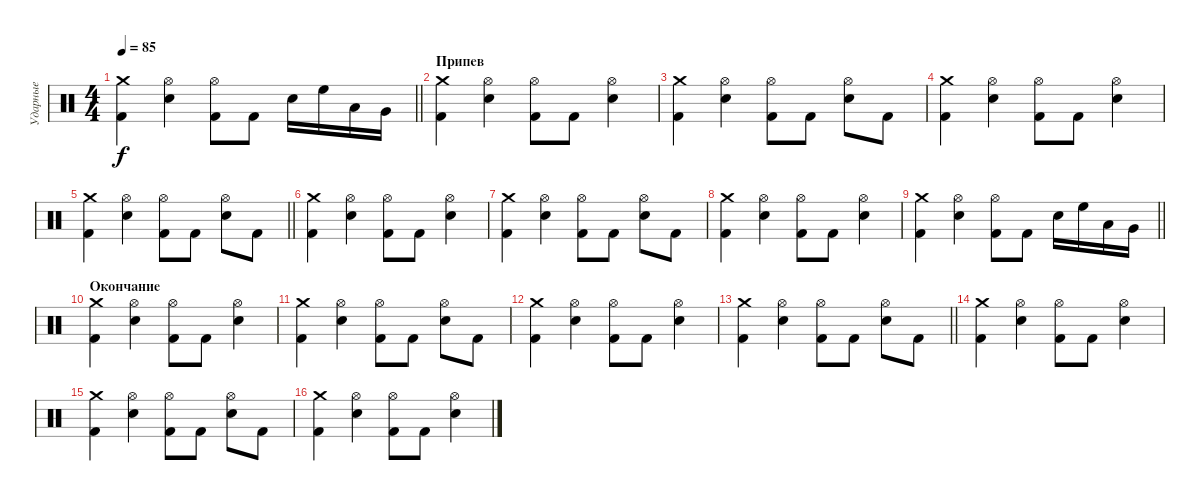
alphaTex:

\track ("Ударные" "Ударные") {instrument percussion}
\staff {score}
\articulation defaults
\ts (4 4)
\tempo 85
\clef neutral
\barLineRight lightlight
\ks c
("Crash medium (hit)" "Kick (hit) 2").4{dy f} ("Hi-Hat (open)" "Snare (hit) 2").4 ("Hi-Hat (open)" "Kick (hit) 2").8 "Kick (hit) 2".8 "Snare (hit) 2".16 "High Floor Tom (hit)".16 "Low Tom (hit)".16 "Very Low Tom (hit)".16 |
\section ("" "Припев")
("Crash medium (hit)" "Kick (hit) 2").4 ("Hi-Hat (open)" "Snare (hit) 2").4 ("Hi-Hat (open)" "Kick (hit) 2").8 "Kick (hit) 2".8 ("Hi-Hat (open)" "Snare (hit) 2").4 |
("Crash medium (hit)" "Kick (hit) 2").4 ("Hi-Hat (open)" "Snare (hit) 2").4 ("Hi-Hat (open)" "Kick (hit) 2").8 "Kick (hit) 2".8 ("Hi-Hat (open)" "Snare (hit) 2").8 "Kick (hit) 2".8 |
("Crash medium (hit)" "Kick (hit) 2").4 ("Hi-Hat (open)" "Snare (hit) 2").4 ("Hi-Hat (open)" "Kick (hit) 2").8 "Kick (hit) 2".8 ("Hi-Hat (open)" "Snare (hit) 2").4 |
\barLineRight lightlight
("Crash medium (hit)" "Kick (hit) 2").4 ("Hi-Hat (open)" "Snare (hit) 2").4 ("Hi-Hat (open)" "Kick (hit) 2").8 "Kick (hit) 2".8 ("Hi-Hat (open)" "Snare (hit) 2").8 "Kick (hit) 2".8 |
("Crash medium (hit)" "Kick (hit) 2").4 ("Hi-Hat (open)" "Snare (hit) 2").4 ("Hi-Hat (open)" "Kick (hit) 2").8 "Kick (hit) 2".8 ("Hi-Hat (open)" "Snare (hit) 2").4 |
("Crash medium (hit)" "Kick (hit) 2").4 ("Hi-Hat (open)" "Snare (hit) 2").4 ("Hi-Hat (open)" "Kick (hit) 2").8 "Kick (hit) 2".8 ("Hi-Hat (open)" "Snare (hit) 2").8 "Kick (hit) 2".8 |
("Crash medium (hit)" "Kick (hit) 2").4 ("Hi-Hat (open)" "Snare (hit) 2").4 ("Hi-Hat (open)" "Kick (hit) 2").8 "Kick (hit) 2".8 ("Hi-Hat (open)" "Snare (hit) 2").4 |
\barLineRight lightlight
("Crash medium (hit)" "Kick (hit) 2").4 ("Hi-Hat (open)" "Snare (hit) 2").4 ("Hi-Hat (open)" "Kick (hit) 2").8 "Kick (hit) 2".8 "Snare (hit) 2".16 "High Floor Tom (hit)".16 "Low Tom (hit)".16 "Very Low Tom (hit)".16 |
\section ("" "Окончание")
("Crash medium (hit)" "Kick (hit) 2").4 ("Hi-Hat (open)" "Snare (hit) 2").4 ("Hi-Hat (open)" "Kick (hit) 2").8 "Kick (hit) 2".8 ("Hi-Hat (open)" "Snare (hit) 2").4 |
("Crash medium (hit)" "Kick (hit) 2").4 ("Hi-Hat (open)" "Snare (hit) 2").4 ("Hi-Hat (open)" "Kick (hit) 2").8 "Kick (hit) 2".8 ("Hi-Hat (open)" "Snare (hit) 2").8 "Kick (hit) 2".8 |
("Crash medium (hit)" "Kick (hit) 2").4 ("Hi-Hat (open)" "Snare (hit) 2").4 ("Hi-Hat (open)" "Kick (hit) 2").8 "Kick (hit) 2".8 ("Hi-Hat (open)" "Snare (hit) 2").4 |
\barLineRight lightlight
("Crash medium (hit)" "Kick (hit) 2").4 ("Hi-Hat (open)" "Snare (hit) 2").4 ("Hi-Hat (open)" "Kick (hit) 2").8 "Kick (hit) 2".8 ("Hi-Hat (open)" "Snare (hit) 2").8 "Kick (hit) 2".8 |
("Crash medium (hit)" "Kick (hit) 2").4 ("Hi-Hat (open)" "Snare (hit) 2").4 ("Hi-Hat (open)" "Kick (hit) 2").8 "Kick (hit) 2".8 ("Hi-Hat (open)" "Snare (hit) 2").4 |
("Crash medium (hit)" "Kick (hit) 2").4 ("Hi-Hat (open)" "Snare (hit) 2").4 ("Hi-Hat (open)" "Kick (hit) 2").8 "Kick (hit) 2".8 ("Hi-Hat (open)" "Snare (hit) 2").8 "Kick (hit) 2".8 |
("Crash medium (hit)" "Kick (hit) 2").4 ("Hi-Hat (open)" "Snare (hit) 2").4 ("Hi-Hat (open)" "Kick (hit) 2").8 "Kick (hit) 2".8 ("Hi-Hat (open)" "Snare (hit) 2").4
